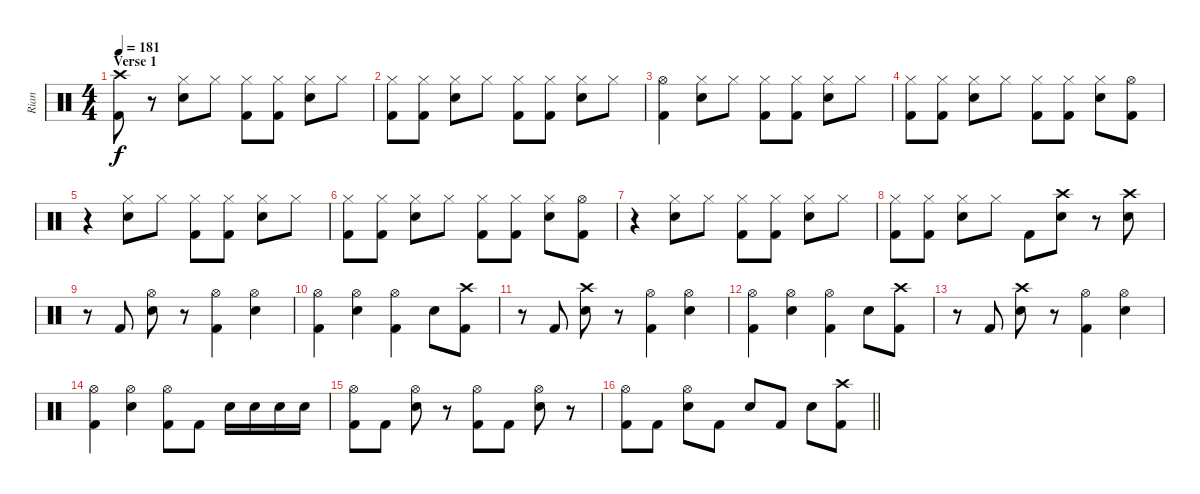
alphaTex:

\track ("Rian" "Rian") {instrument percussion bank 255}
\staff {score}
\articulation defaults
\ts (4 4)
\section ("" "Verse 1")
\tempo 181
\clef neutral
\ks c
("Crash high (hit)" "Kick (hit) 2").8{dy f} r.8 ("Hi-Hat (closed)" "Electric Snare (hit)").8 "Hi-Hat (closed)".8 ("Hi-Hat (closed)" "Kick (hit) 2").8 ("Hi-Hat (closed)" "Kick (hit) 2").8 ("Hi-Hat (closed)" "Electric Snare (hit)").8 "Hi-Hat (closed)".8 |
("Hi-Hat (closed)" "Kick (hit) 2").8 ("Hi-Hat (closed)" "Kick (hit) 2").8 ("Hi-Hat (closed)" "Electric Snare (hit)").8 "Hi-Hat (closed)".8 ("Hi-Hat (closed)" "Kick (hit) 2").8 ("Hi-Hat (closed)" "Kick (hit) 2").8 ("Hi-Hat (closed)" "Electric Snare (hit)").8 "Hi-Hat (closed)".8 |
("Hi-Hat (open)" "Kick (hit) 2").4 ("Hi-Hat (closed)" "Electric Snare (hit)").8 "Hi-Hat (closed)".8 ("Hi-Hat (closed)" "Kick (hit) 2").8 ("Hi-Hat (closed)" "Kick (hit) 2").8 ("Hi-Hat (closed)" "Electric Snare (hit)").8 "Hi-Hat (closed)".8 |
("Hi-Hat (closed)" "Kick (hit) 2").8 ("Hi-Hat (closed)" "Kick (hit) 2").8 ("Hi-Hat (closed)" "Electric Snare (hit)").8 "Hi-Hat (closed)".8 ("Hi-Hat (closed)" "Kick (hit) 2").8 ("Hi-Hat (closed)" "Kick (hit) 2").8 ("Hi-Hat (closed)" "Electric Snare (hit)").8 ("Hi-Hat (open)" "Kick (hit) 2").8 |
r.4 ("Hi-Hat (closed)" "Electric Snare (hit)").8 "Hi-Hat (closed)".8 ("Hi-Hat (closed)" "Kick (hit) 2").8 ("Hi-Hat (closed)" "Kick (hit) 2").8 ("Hi-Hat (closed)" "Electric Snare (hit)").8 "Hi-Hat (closed)".8 |
("Hi-Hat (closed)" "Kick (hit) 2").8 ("Hi-Hat (closed)" "Kick (hit) 2").8 ("Hi-Hat (closed)" "Electric Snare (hit)").8 "Hi-Hat (closed)".8 ("Hi-Hat (closed)" "Kick (hit) 2").8 ("Hi-Hat (closed)" "Kick (hit) 2").8 ("Hi-Hat (closed)" "Electric Snare (hit)").8 ("Hi-Hat (open)" "Kick (hit) 2").8 |
r.4 ("Hi-Hat (closed)" "Electric Snare (hit)").8 "Hi-Hat (closed)".8 ("Hi-Hat (closed)" "Kick (hit) 2").8 ("Hi-Hat (closed)" "Kick (hit) 2").8 ("Hi-Hat (closed)" "Electric Snare (hit)").8 "Hi-Hat (closed)".8 |
("Hi-Hat (closed)" "Kick (hit) 2").8 ("Hi-Hat (closed)" "Kick (hit) 2").8 ("Hi-Hat (closed)" "Electric Snare (hit)").8 "Hi-Hat (closed)".8 "Kick (hit) 2".8 ("Crash high (hit)" "Electric Snare (hit)").8 r.8 ("Crash high (hit)" "Electric Snare (hit)").8 |
r.8 "Kick (hit) 2".8 ("Hi-Hat (open)" "Electric Snare (hit)").8 r.8 ("Hi-Hat (open)" "Kick (hit) 2").4 ("Hi-Hat (open)" "Electric Snare (hit)").4 |
("Hi-Hat (open)" "Kick (hit) 2").4 ("Hi-Hat (open)" "Electric Snare (hit)").4 ("Hi-Hat (open)" "Kick (hit) 2").4 "Electric Snare (hit)".8 ("Crash high (hit)" "Kick (hit) 2").8 |
r.8 "Kick (hit) 2".8 ("Crash high (hit)" "Electric Snare (hit)").8 r.8 ("Hi-Hat (open)" "Kick (hit) 2").4 ("Hi-Hat (open)" "Electric Snare (hit)").4 |
("Hi-Hat (open)" "Kick (hit) 2").4 ("Hi-Hat (open)" "Electric Snare (hit)").4 ("Hi-Hat (open)" "Kick (hit) 2").4 "Electric Snare (hit)".8 ("Crash high (hit)" "Kick (hit) 2").8 |
r.8 "Kick (hit) 2".8 ("Crash high (hit)" "Electric Snare (hit)").8 r.8 ("Hi-Hat (open)" "Kick (hit) 2").4 ("Hi-Hat (open)" "Electric Snare (hit)").4 |
("Hi-Hat (open)" "Kick (hit) 2").4 ("Hi-Hat (open)" "Electric Snare (hit)").4 ("Hi-Hat (open)" "Kick (hit) 2").8 "Kick (hit) 2".8 "Electric Snare (hit)".16 "Electric Snare (hit)".16 "Electric Snare (hit)".16 "Electric Snare (hit)".16 |
("Hi-Hat (open)" "Kick (hit) 2").8 "Kick (hit) 2".8 ("Hi-Hat (open)" "Electric Snare (hit)").8 r.8 ("Hi-Hat (open)" "Kick (hit) 2").8 "Kick (hit) 2".8 ("Hi-Hat (open)" "Electric Snare (hit)").8 r.8 |
\barLineRight lightlight
("Hi-Hat (open)" "Kick (hit) 2").8 "Kick (hit) 2".8 ("Hi-Hat (open)" "Electric Snare (hit)").8 "Kick (hit) 2".8 "Electric Snare (hit)".8 "Kick (hit) 2".8 "Electric Snare (hit)".8 ("Crash high (hit)" "Kick (hit) 2").8
